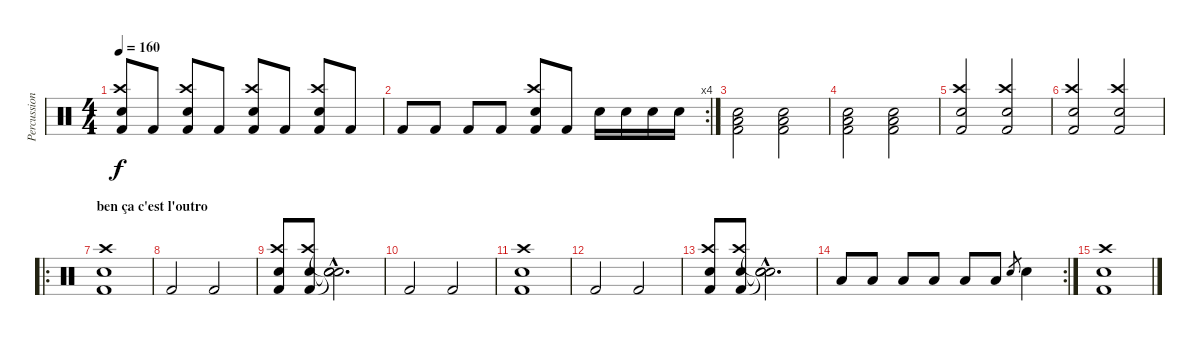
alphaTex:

\track ("Percussions" "Percussion") {instrument percussion}
\staff {score}
\articulation defaults
\ts (4 4)
\tempo 160
\clef neutral
\ks c
("Electric Snare (hit)" "Crash high (hit)" "Kick (hit) 2").8{dy f} "Kick (hit) 2".8 ("Electric Snare (hit)" "Crash high (hit)" "Kick (hit) 2").8 "Kick (hit) 2".8 ("Electric Snare (hit)" "Crash high (hit)" "Kick (hit) 2").8 "Kick (hit) 2".8 ("Electric Snare (hit)" "Crash high (hit)" "Kick (hit) 2").8 "Kick (hit) 2".8 |
\rc 4 "Kick (hit) 2".8 "Kick (hit) 2".8 "Kick (hit) 2".8 "Kick (hit) 2".8
("Crash high (hit)" "Kick (hit) 2" "Electric Snare (hit)").8 "Kick (hit) 2".8 "Electric Snare (hit)".16 "Electric Snare (hit)".16 "Electric Snare (hit)".16 "Electric Snare (hit)".16 |
("Kick (hit) 2" "Electric Snare (hit)" "Low Tom (hit)").2 ("Kick (hit) 2" "Low Tom (hit)" "Electric Snare (hit)").2 |
("Kick (hit) 2" "Electric Snare (hit)" "Low Tom (hit)").2 ("Kick (hit) 2" "Low Tom (hit)" "Electric Snare (hit)").2 |
("Kick (hit) 2" "Electric Snare (hit)" "Crash high (hit)").2 ("Kick (hit) 2" "Crash high (hit)" "Electric Snare (hit)").2 |
("Kick (hit) 2" "Electric Snare (hit)" "Crash high (hit)").2 ("Kick (hit) 2" "Crash high (hit)" "Electric Snare (hit)").2 |
\ro
\section ("" "ben ça c'est l'outro")
("Electric Snare (hit)" "Kick (hit) 2" "Crash high (hit)").1 |
"Kick (hit) 2".2 "Kick (hit) 2".2 |
("Crash high (hit)" "Electric Snare (hit)" "Kick (hit) 2").8 ("Crash high (hit)" "Kick (hit) 2" "Electric Snare (hit)").8 ("Snare (hit)"{hac t} "Snare (hit)"{hac t} "Snare (hit)"{hac t}).2{d} |
"Kick (hit) 2".2 "Kick (hit) 2".2 |
("Electric Snare (hit)" "Crash high (hit)" "Kick (hit) 2").1 |
"Kick (hit) 2".2 "Kick (hit) 2".2 |
("Crash high (hit)" "Electric Snare (hit)" "Kick (hit) 2").8 ("Crash high (hit)" "Electric Snare (hit)" "Kick (hit) 2").8 ("Snare (hit)"{hac t} "Snare (hit)"{hac t} "Snare (hit)"{hac t}).2{d} |
\rc 2 "Low Tom (hit)".8 "Low Tom (hit)".8 "Low Tom (hit)".8 "Low Tom (hit)".8 "Low Tom (hit)".8 "Low Tom (hit)".8 "Electric Snare (hit)".8{gr} "Electric Snare (hit)".4
|
("Crash high (hit)" "Kick (hit) 2" "Electric Snare (hit)").1
